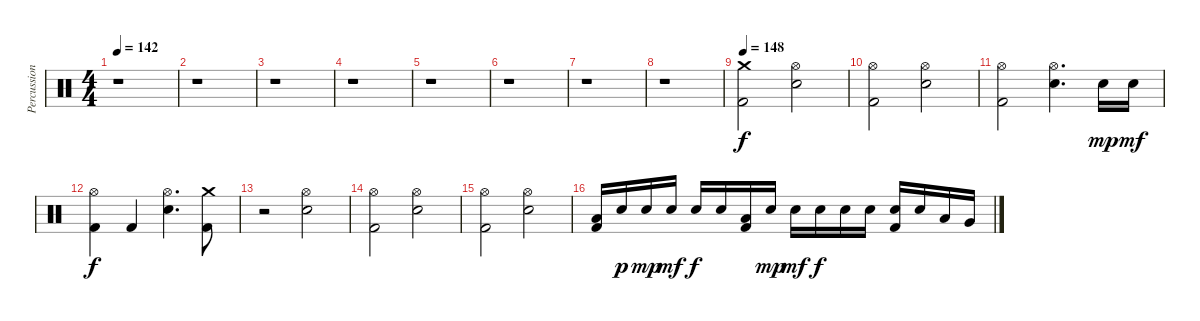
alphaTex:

\track ("Percussion" "Percussion") {instrument percussion}
\staff {score}
\articulation defaults
\ts (4 4)
\tempo 142
\clef neutral
\ks c
r.1{dy f} |
r.1 |
r.1 |
r.1 |
r.1 |
r.1 |
r.1 |
r.1 |
\tempo 148
("Crash medium (hit)" "Kick (hit) 2").2 ("Hi-Hat (open)" "Electric Snare (hit)").2 |
("Hi-Hat (open)" "Kick (hit) 2").2 ("Hi-Hat (open)" "Electric Snare (hit)").2 |
("Hi-Hat (open)" "Kick (hit) 2").2 ("Hi-Hat (open)" "Electric Snare (hit)").4{d} "Electric Snare (hit)".16{dy mp} "Electric Snare (hit)".16{dy mf} |
("Hi-Hat (open)" "Kick (hit) 2").4{dy f} "Kick (hit) 2".4 ("Hi-Hat (open)" "Electric Snare (hit)").4{d} ("Crash medium (hit)" "Kick (hit) 2").8 |
r.2 ("Hi-Hat (open)" "Electric Snare (hit)").2 |
("Hi-Hat (open)" "Kick (hit) 2").2 ("Hi-Hat (open)" "Electric Snare (hit)").2 |
("Hi-Hat (open)" "Kick (hit) 2").2 ("Hi-Hat (open)" "Electric Snare (hit)").2 |
("Low Tom (hit)" "Kick (hit) 2").16 "Electric Snare (hit)".16{dy p} "Electric Snare (hit)".16{dy mp} "Electric Snare (hit)".16{dy mf} "Electric Snare (hit)".16{dy f} "Electric Snare (hit)".16 ("Low Tom (hit)" "Kick (hit) 2").16 "Electric Snare (hit)".16{dy mp} "Electric Snare (hit)".16{dy mf} "Electric Snare (hit)".16{dy f} "Electric Snare (hit)".16 "Electric Snare (hit)".16 ("Electric Snare (hit)" "Kick (hit) 2").16 "Electric Snare (hit)".16 "Low Tom (hit)".16 "Very Low Tom (hit)".16
